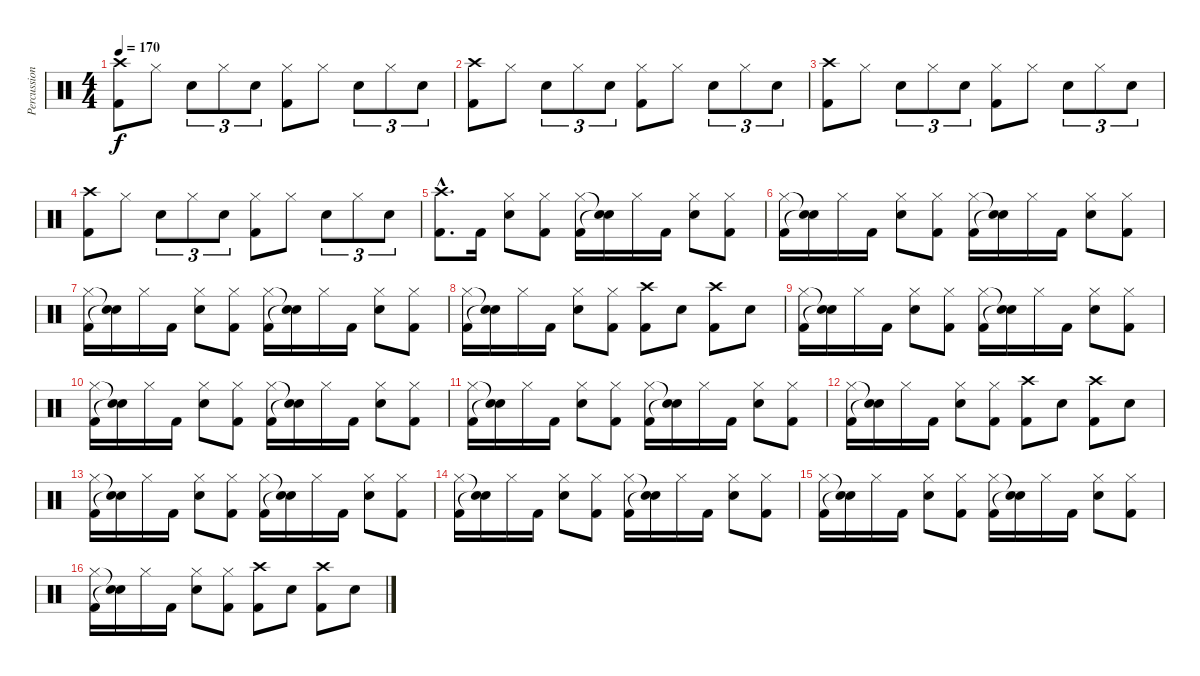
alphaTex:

\track ("Percussion" "Percussion") {instrument percussion}
\staff {score}
\articulation defaults
\ts (4 4)
\tempo 170
\clef neutral
\ks c
("Crash high (hit)" "Kick (hit) 2").8{dy f} "Hi-Hat (closed)".8 "Snare (hit) 2".8{tu (3 2)} "Hi-Hat (closed)".8{tu (3 2)} "Snare (hit) 2".8{tu (3 2)} ("Hi-Hat (closed)" "Kick (hit) 2").8 "Hi-Hat (closed)".8 "Snare (hit) 2".8{tu (3 2)} "Hi-Hat (closed)".8{tu (3 2)} "Snare (hit) 2".8{tu (3 2)} |
("Crash high (hit)" "Kick (hit) 2").8 "Hi-Hat (closed)".8 "Snare (hit) 2".8{tu (3 2)} "Hi-Hat (closed)".8{tu (3 2)} "Snare (hit) 2".8{tu (3 2)} ("Hi-Hat (closed)" "Kick (hit) 2").8 "Hi-Hat (closed)".8 "Snare (hit) 2".8{tu (3 2)} "Hi-Hat (closed)".8{tu (3 2)} "Snare (hit) 2".8{tu (3 2)} |
("Crash high (hit)" "Kick (hit) 2").8 "Hi-Hat (closed)".8 "Snare (hit) 2".8{tu (3 2)} "Hi-Hat (closed)".8{tu (3 2)} "Snare (hit) 2".8{tu (3 2)} ("Hi-Hat (closed)" "Kick (hit) 2").8 "Hi-Hat (closed)".8 "Snare (hit) 2".8{tu (3 2)} "Hi-Hat (closed)".8{tu (3 2)} "Snare (hit) 2".8{tu (3 2)} |
("Crash high (hit)" "Kick (hit) 2").8 "Hi-Hat (closed)".8 "Snare (hit) 2".8{tu (3 2)} "Hi-Hat (closed)".8{tu (3 2)} "Snare (hit) 2".8{tu (3 2)} ("Hi-Hat (closed)" "Kick (hit) 2").8 "Hi-Hat (closed)".8 "Snare (hit) 2".8{tu (3 2)} "Hi-Hat (closed)".8{tu (3 2)} "Snare (hit) 2".8{tu (3 2)} |
("Crash high (hit)"{hac} "Kick (hit) 2"{hac}).8{d} "Kick (hit) 2".16 ("Hi-Hat (closed)" "Snare (hit) 2").8 ("Hi-Hat (closed)" "Kick (hit) 2").8 ("Hi-Hat (closed)" "Kick (hit) 2").16 ("Snare (hit)"{t} "Snare (hit)"{t}).16 "Hi-Hat (closed)".16 "Kick (hit) 2".16 ("Hi-Hat (closed)" "Snare (hit) 2").8 ("Hi-Hat (closed)" "Kick (hit) 2").8 |
("Hi-Hat (closed)" "Kick (hit) 2").16 ("Snare (hit)"{t} "Snare (hit)"{t}).16 "Hi-Hat (closed)".16 "Kick (hit) 2".16 ("Hi-Hat (closed)" "Snare (hit) 2").8 ("Hi-Hat (closed)" "Kick (hit) 2").8 ("Hi-Hat (closed)" "Kick (hit) 2").16 ("Snare (hit)"{t} "Snare (hit)"{t}).16 "Hi-Hat (closed)".16 "Kick (hit) 2".16 ("Hi-Hat (closed)" "Snare (hit) 2").8 ("Hi-Hat (closed)" "Kick (hit) 2").8 |
("Hi-Hat (closed)" "Kick (hit) 2").16 ("Snare (hit)"{t} "Snare (hit)"{t}).16 "Hi-Hat (closed)".16 "Kick (hit) 2".16 ("Hi-Hat (closed)" "Snare (hit) 2").8 ("Hi-Hat (closed)" "Kick (hit) 2").8 ("Hi-Hat (closed)" "Kick (hit) 2").16 ("Snare (hit)"{t} "Snare (hit)"{t}).16 "Hi-Hat (closed)".16 "Kick (hit) 2".16 ("Hi-Hat (closed)" "Snare (hit) 2").8 ("Hi-Hat (closed)" "Kick (hit) 2").8 |
("Hi-Hat (closed)" "Kick (hit) 2").16 ("Snare (hit)"{t} "Snare (hit)"{t}).16 "Hi-Hat (closed)".16 "Kick (hit) 2".16 ("Hi-Hat (closed)" "Snare (hit) 2").8 ("Hi-Hat (closed)" "Kick (hit) 2").8 ("Crash high (hit)" "Kick (hit) 2").8 "Snare (hit) 2".8 ("Crash high (hit)" "Kick (hit) 2").8 "Snare (hit) 2".8 |
("Hi-Hat (closed)" "Kick (hit) 2").16 ("Snare (hit)"{t} "Snare (hit)"{t}).16 "Hi-Hat (closed)".16 "Kick (hit) 2".16 ("Hi-Hat (closed)" "Snare (hit) 2").8 ("Hi-Hat (closed)" "Kick (hit) 2").8 ("Hi-Hat (closed)" "Kick (hit) 2").16 ("Snare (hit)"{t} "Snare (hit)"{t}).16 "Hi-Hat (closed)".16 "Kick (hit) 2".16 ("Hi-Hat (closed)" "Snare (hit) 2").8 ("Hi-Hat (closed)" "Kick (hit) 2").8 |
("Hi-Hat (closed)" "Kick (hit) 2").16 ("Snare (hit)"{t} "Snare (hit)"{t}).16 "Hi-Hat (closed)".16 "Kick (hit) 2".16 ("Hi-Hat (closed)" "Snare (hit) 2").8 ("Hi-Hat (closed)" "Kick (hit) 2").8 ("Hi-Hat (closed)" "Kick (hit) 2").16 ("Snare (hit)"{t} "Snare (hit)"{t}).16 "Hi-Hat (closed)".16 "Kick (hit) 2".16 ("Hi-Hat (closed)" "Snare (hit) 2").8 ("Hi-Hat (closed)" "Kick (hit) 2").8 |
("Hi-Hat (closed)" "Kick (hit) 2").16 ("Snare (hit)"{t} "Snare (hit)"{t}).16 "Hi-Hat (closed)".16 "Kick (hit) 2".16 ("Hi-Hat (closed)" "Snare (hit) 2").8 ("Hi-Hat (closed)" "Kick (hit) 2").8 ("Hi-Hat (closed)" "Kick (hit) 2").16 ("Snare (hit)"{t} "Snare (hit)"{t}).16 "Hi-Hat (closed)".16 "Kick (hit) 2".16 ("Hi-Hat (closed)" "Snare (hit) 2").8 ("Hi-Hat (closed)" "Kick (hit) 2").8 |
("Hi-Hat (closed)" "Kick (hit) 2").16 ("Snare (hit)"{t} "Snare (hit)"{t}).16 "Hi-Hat (closed)".16 "Kick (hit) 2".16 ("Hi-Hat (closed)" "Snare (hit) 2").8 ("Hi-Hat (closed)" "Kick (hit) 2").8 ("Crash high (hit)" "Kick (hit) 2").8 "Snare (hit) 2".8 ("Crash high (hit)" "Kick (hit) 2").8 "Snare (hit) 2".8 |
("Hi-Hat (closed)" "Kick (hit) 2").16 ("Snare (hit)"{t} "Snare (hit)"{t}).16 "Hi-Hat (closed)".16 "Kick (hit) 2".16 ("Hi-Hat (closed)" "Snare (hit) 2").8 ("Hi-Hat (closed)" "Kick (hit) 2").8 ("Hi-Hat (closed)" "Kick (hit) 2").16 ("Snare (hit)"{t} "Snare (hit)"{t}).16 "Hi-Hat (closed)".16 "Kick (hit) 2".16 ("Hi-Hat (closed)" "Snare (hit) 2").8 ("Hi-Hat (closed)" "Kick (hit) 2").8 |
("Hi-Hat (closed)" "Kick (hit) 2").16 ("Snare (hit)"{t} "Snare (hit)"{t}).16 "Hi-Hat (closed)".16 "Kick (hit) 2".16 ("Hi-Hat (closed)" "Snare (hit) 2").8 ("Hi-Hat (closed)" "Kick (hit) 2").8 ("Hi-Hat (closed)" "Kick (hit) 2").16 ("Snare (hit)"{t} "Snare (hit)"{t}).16 "Hi-Hat (closed)".16 "Kick (hit) 2".16 ("Hi-Hat (closed)" "Snare (hit) 2").8 ("Hi-Hat (closed)" "Kick (hit) 2").8 |
("Hi-Hat (closed)" "Kick (hit) 2").16 ("Snare (hit)"{t} "Snare (hit)"{t}).16 "Hi-Hat (closed)".16 "Kick (hit) 2".16 ("Hi-Hat (closed)" "Snare (hit) 2").8 ("Hi-Hat (closed)" "Kick (hit) 2").8 ("Hi-Hat (closed)" "Kick (hit) 2").16 ("Snare (hit)"{t} "Snare (hit)"{t}).16 "Hi-Hat (closed)".16 "Kick (hit) 2".16 ("Hi-Hat (closed)" "Snare (hit) 2").8 ("Hi-Hat (closed)" "Kick (hit) 2").8 |
("Hi-Hat (closed)" "Kick (hit) 2").16 ("Snare (hit)"{t} "Snare (hit)"{t}).16 "Hi-Hat (closed)".16 "Kick (hit) 2".16 ("Hi-Hat (closed)" "Snare (hit) 2").8 ("Hi-Hat (closed)" "Kick (hit) 2").8 ("Crash high (hit)" "Kick (hit) 2").8 "Snare (hit) 2".8 ("Crash high (hit)" "Kick (hit) 2").8 "Snare (hit) 2".8
